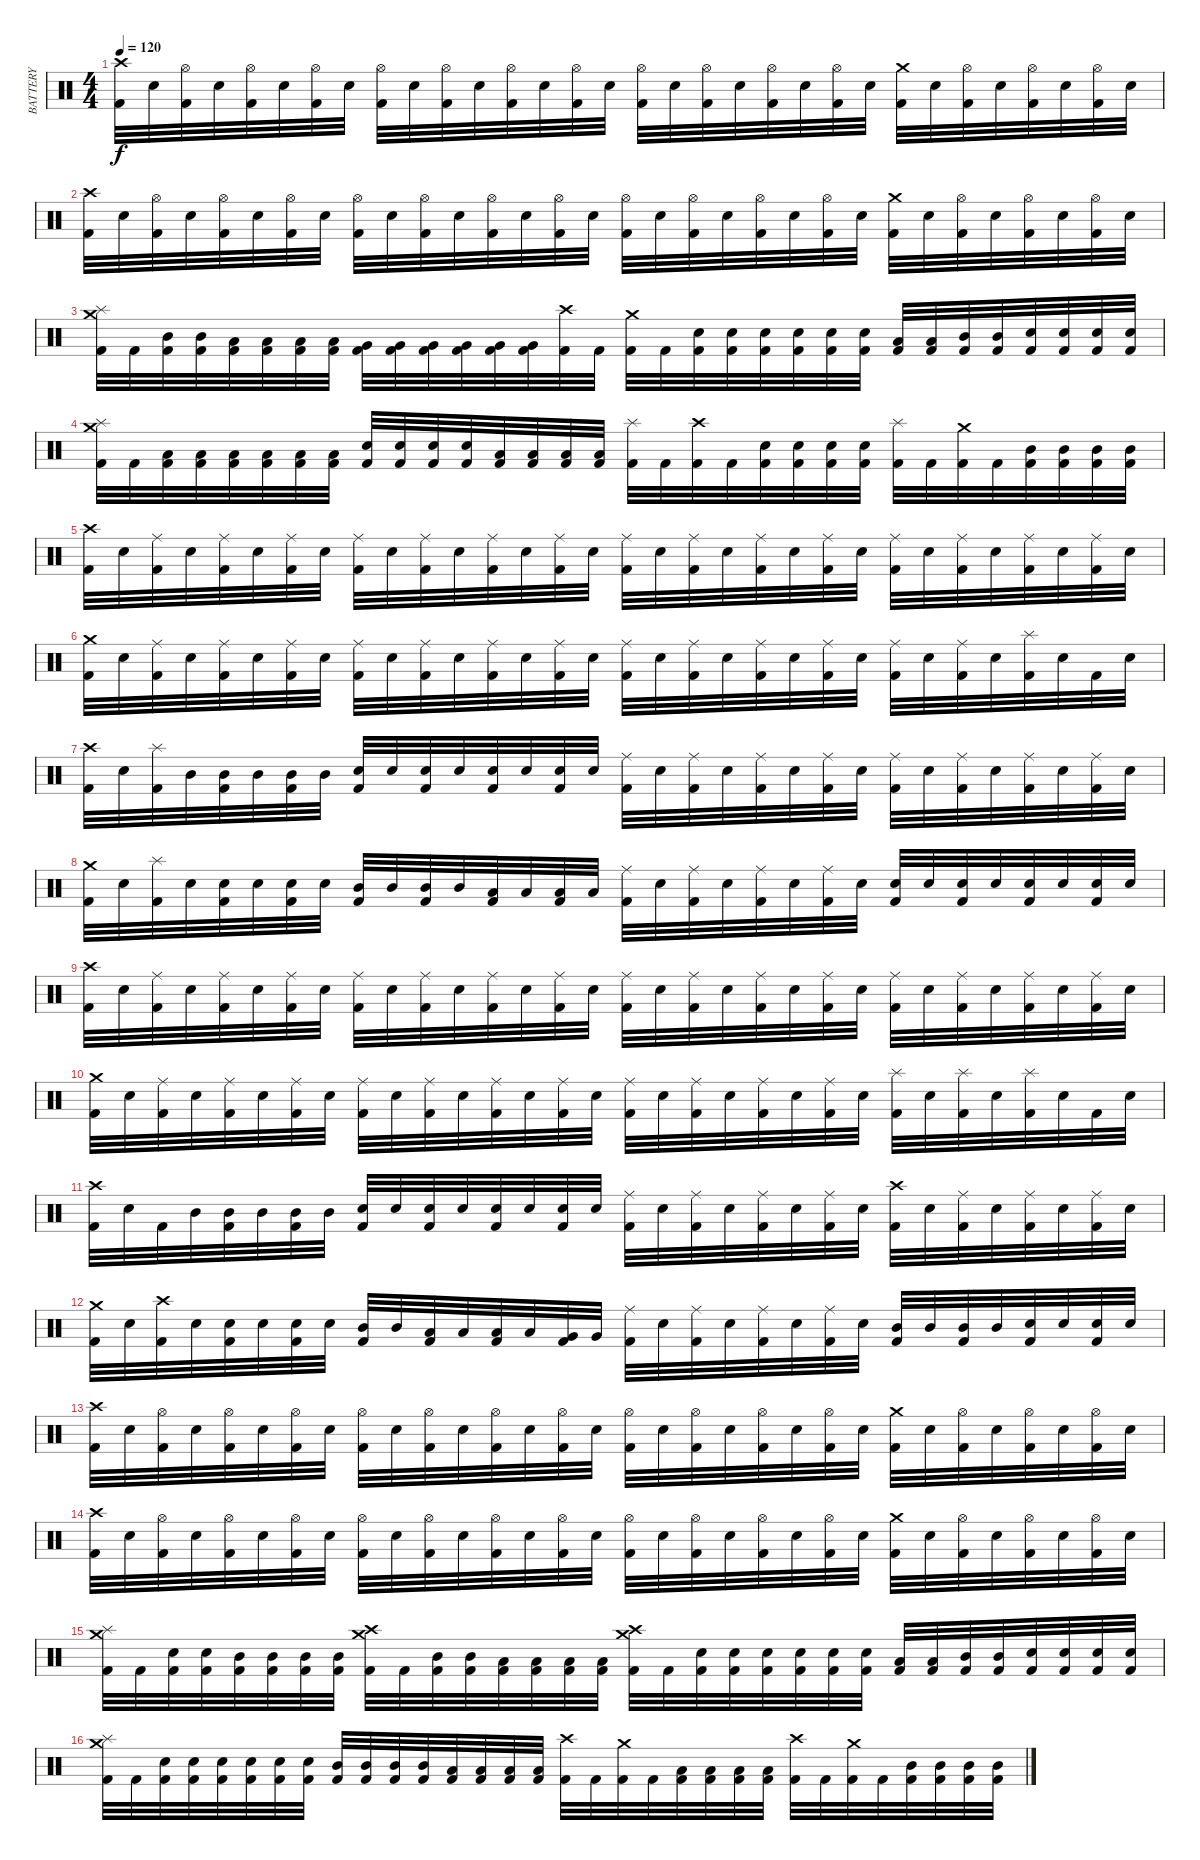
\track ("BATTERY" "BATTERY") {instrument percussion}
\staff {score}
\articulation defaults
\ts (4 4)
\tempo 120
\clef neutral
\ks c
("Kick (hit) 2" "Crash high (hit)").32{dy f} "Snare (hit) 2".32 ("Kick (hit) 2" "Hi-Hat (open)").32 "Snare (hit) 2".32 ("Kick (hit) 2" "Hi-Hat (open)").32 "Snare (hit) 2".32 ("Kick (hit) 2" "Hi-Hat (open)").32 "Snare (hit) 2".32 ("Kick (hit) 2" "Hi-Hat (open)").32 "Snare (hit) 2".32 ("Kick (hit) 2" "Hi-Hat (open)").32 "Snare (hit) 2".32 ("Kick (hit) 2" "Hi-Hat (open)").32 "Snare (hit) 2".32 ("Kick (hit) 2" "Hi-Hat (open)").32 "Snare (hit) 2".32 ("Kick (hit) 2" "Hi-Hat (open)").32 "Snare (hit) 2".32 ("Kick (hit) 2" "Hi-Hat (open)").32 "Snare (hit) 2".32 ("Kick (hit) 2" "Hi-Hat (open)").32 "Snare (hit) 2".32 ("Kick (hit) 2" "Hi-Hat (open)").32 "Snare (hit) 2".32 ("Kick (hit) 2" "Crash medium (hit)").32 "Snare (hit) 2".32 ("Kick (hit) 2" "Hi-Hat (open)").32 "Snare (hit) 2".32 ("Kick (hit) 2" "Hi-Hat (open)").32 "Snare (hit) 2".32 ("Kick (hit) 2" "Hi-Hat (open)").32 "Snare (hit) 2".32 |
("Kick (hit) 2" "Crash high (hit)").32 "Snare (hit) 2".32 ("Kick (hit) 2" "Hi-Hat (open)").32 "Snare (hit) 2".32 ("Kick (hit) 2" "Hi-Hat (open)").32 "Snare (hit) 2".32 ("Kick (hit) 2" "Hi-Hat (open)").32 "Snare (hit) 2".32 ("Kick (hit) 2" "Hi-Hat (open)").32 "Snare (hit) 2".32 ("Kick (hit) 2" "Hi-Hat (open)").32 "Snare (hit) 2".32 ("Kick (hit) 2" "Hi-Hat (open)").32 "Snare (hit) 2".32 ("Kick (hit) 2" "Hi-Hat (open)").32 "Snare (hit) 2".32 ("Kick (hit) 2" "Hi-Hat (open)").32 "Snare (hit) 2".32 ("Kick (hit) 2" "Hi-Hat (open)").32 "Snare (hit) 2".32 ("Kick (hit) 2" "Hi-Hat (open)").32 "Snare (hit) 2".32 ("Kick (hit) 2" "Hi-Hat (open)").32 "Snare (hit) 2".32 ("Kick (hit) 2" "Crash medium (hit)").32 "Snare (hit) 2".32 ("Kick (hit) 2" "Hi-Hat (open)").32 "Snare (hit) 2".32 ("Kick (hit) 2" "Hi-Hat (open)").32 "Snare (hit) 2".32 ("Kick (hit) 2" "Hi-Hat (open)").32 "Snare (hit) 2".32 |
("Kick (hit) 2" "Splash (hit)" "Crash medium (hit)").32 "Kick (hit) 2".32 ("Kick (hit) 2" "Mid Tom (hit)").32 ("Kick (hit) 2" "Mid Tom (hit)").32 ("Kick (hit) 2" "Low Tom (hit)").32 ("Kick (hit) 2" "Low Tom (hit)").32 ("Kick (hit) 2" "Low Tom (hit)").32 ("Kick (hit) 2" "Low Tom (hit)").32 ("Kick (hit) 2" "Very Low Tom (hit)").32 ("Kick (hit) 2" "Very Low Tom (hit)").32 ("Kick (hit) 2" "Very Low Tom (hit)").32 ("Kick (hit) 2" "Very Low Tom (hit)").32 ("Kick (hit) 2" "Very Low Tom (hit)").32 ("Kick (hit) 2" "Very Low Tom (hit)").32 ("Kick (hit) 2" "Crash high (hit)").32 "Kick (hit) 2".32 ("Kick (hit) 2" "Crash medium (hit)").32 "Kick (hit) 2".32 ("Kick (hit) 2" "Snare (hit) 2").32 ("Kick (hit) 2" "Snare (hit) 2").32 ("Kick (hit) 2" "Snare (hit) 2").32 ("Kick (hit) 2" "Snare (hit) 2").32 ("Kick (hit) 2" "Snare (hit) 2").32 ("Kick (hit) 2" "Snare (hit) 2").32 ("Kick (hit) 2" "Low Tom (hit)").32 ("Kick (hit) 2" "Low Tom (hit)").32 ("Kick (hit) 2" "Mid Tom (hit)").32 ("Kick (hit) 2" "Mid Tom (hit)").32 ("Kick (hit) 2" "Snare (hit) 2").32 ("Kick (hit) 2" "Snare (hit) 2").32 ("Kick (hit) 2" "Snare (hit) 2").32 ("Kick (hit) 2" "Snare (hit) 2").32 |
("Kick (hit) 2" "Splash (hit)" "Crash medium (hit)").32 "Kick (hit) 2".32 ("Kick (hit) 2" "Low Tom (hit)").32 ("Kick (hit) 2" "Low Tom (hit)").32 ("Kick (hit) 2" "Low Tom (hit)").32 ("Kick (hit) 2" "Low Tom (hit)").32 ("Kick (hit) 2" "Low Tom (hit)").32 ("Kick (hit) 2" "Low Tom (hit)").32 ("Kick (hit) 2" "Snare (hit) 2").32 ("Kick (hit) 2" "Snare (hit) 2").32 ("Kick (hit) 2" "Snare (hit) 2").32 ("Kick (hit) 2" "Snare (hit) 2").32 ("Kick (hit) 2" "Low Tom (hit)").32 ("Kick (hit) 2" "Low Tom (hit)").32 ("Kick (hit) 2" "Low Tom (hit)").32 ("Kick (hit) 2" "Low Tom (hit)").32 ("Kick (hit) 2" "Splash (hit)").32 "Kick (hit) 2".32 ("Kick (hit) 2" "Crash high (hit)").32 "Kick (hit) 2".32 ("Kick (hit) 2" "Snare (hit) 2").32 ("Kick (hit) 2" "Snare (hit) 2").32 ("Kick (hit) 2" "Snare (hit) 2").32 ("Kick (hit) 2" "Snare (hit) 2").32 ("Kick (hit) 2" "Splash (hit)").32 "Kick (hit) 2".32 ("Kick (hit) 2" "Crash medium (hit)").32 "Kick (hit) 2".32 ("Kick (hit) 2" "Mid Tom (hit)").32 ("Kick (hit) 2" "Mid Tom (hit)").32 ("Kick (hit) 2" "Mid Tom (hit)").32 ("Kick (hit) 2" "Mid Tom (hit)").32 |
("Kick (hit) 2" "Crash high (hit)").32 "Snare (hit) 2".32 ("Kick (hit) 2" "Ride (middle)").32 "Snare (hit) 2".32 ("Kick (hit) 2" "Ride (middle)").32 "Snare (hit) 2".32 ("Kick (hit) 2" "Ride (middle)").32 "Snare (hit) 2".32 ("Kick (hit) 2" "Ride (middle)").32 "Snare (hit) 2".32 ("Kick (hit) 2" "Ride (middle)").32 "Snare (hit) 2".32 ("Kick (hit) 2" "Ride (middle)").32 "Snare (hit) 2".32 ("Kick (hit) 2" "Ride (middle)").32 "Snare (hit) 2".32 ("Kick (hit) 2" "Ride (middle)").32 "Snare (hit) 2".32 ("Kick (hit) 2" "Ride (middle)").32 "Snare (hit) 2".32 ("Kick (hit) 2" "Ride (middle)").32 "Snare (hit) 2".32 ("Kick (hit) 2" "Ride (middle)").32 "Snare (hit) 2".32 ("Kick (hit) 2" "Ride (middle)").32 "Snare (hit) 2".32 ("Kick (hit) 2" "Ride (middle)").32 "Snare (hit) 2".32 ("Kick (hit) 2" "Ride (middle)").32 "Snare (hit) 2".32 ("Kick (hit) 2" "Ride (middle)").32 "Snare (hit) 2".32 |
("Kick (hit) 2" "Crash medium (hit)").32 "Snare (hit) 2".32 ("Kick (hit) 2" "Ride (middle)").32 "Snare (hit) 2".32 ("Kick (hit) 2" "Ride (middle)").32 "Snare (hit) 2".32 ("Kick (hit) 2" "Ride (middle)").32 "Snare (hit) 2".32 ("Kick (hit) 2" "Ride (middle)").32 "Snare (hit) 2".32 ("Kick (hit) 2" "Ride (middle)").32 "Snare (hit) 2".32 ("Kick (hit) 2" "Ride (middle)").32 "Snare (hit) 2".32 ("Kick (hit) 2" "Ride (middle)").32 "Snare (hit) 2".32 ("Kick (hit) 2" "Ride (middle)").32 "Snare (hit) 2".32 ("Kick (hit) 2" "Ride (middle)").32 "Snare (hit) 2".32 ("Kick (hit) 2" "Ride (middle)").32 "Snare (hit) 2".32 ("Kick (hit) 2" "Ride (middle)").32 "Snare (hit) 2".32 ("Kick (hit) 2" "Ride (middle)").32 "Snare (hit) 2".32 ("Kick (hit) 2" "Ride (middle)").32 "Snare (hit) 2".32 ("Kick (hit) 2" "Splash (hit)").32 "Snare (hit) 2".32 "Kick (hit) 2".32 "Snare (hit) 2".32 |
("Kick (hit) 2" "Crash high (hit)").32 "Snare (hit) 2".32 ("Kick (hit) 2" "Splash (hit)").32 "Mid Tom (hit)".32 ("Kick (hit) 2" "Mid Tom (hit)").32 "Mid Tom (hit)".32 ("Kick (hit) 2" "Mid Tom (hit)").32 "Mid Tom (hit)".32 ("Kick (hit) 2" "Snare (hit) 2").32 "Snare (hit) 2".32 ("Kick (hit) 2" "Snare (hit) 2").32 "Snare (hit) 2".32 ("Kick (hit) 2" "Snare (hit) 2").32 "Snare (hit) 2".32 ("Kick (hit) 2" "Snare (hit) 2").32 "Snare (hit) 2".32 ("Kick (hit) 2" "Ride (middle)").32 "Snare (hit) 2".32 ("Kick (hit) 2" "Ride (middle)").32 "Snare (hit) 2".32 ("Kick (hit) 2" "Ride (middle)").32 "Snare (hit) 2".32 ("Kick (hit) 2" "Ride (middle)").32 "Snare (hit) 2".32 ("Kick (hit) 2" "Ride (middle)").32 "Snare (hit) 2".32 ("Kick (hit) 2" "Ride (middle)").32 "Snare (hit) 2".32 ("Kick (hit) 2" "Ride (middle)").32 "Snare (hit) 2".32 ("Kick (hit) 2" "Ride (middle)").32 "Snare (hit) 2".32 |
("Kick (hit) 2" "Crash medium (hit)").32 "Snare (hit) 2".32 ("Kick (hit) 2" "Splash (hit)").32 "Snare (hit) 2".32 ("Kick (hit) 2" "Snare (hit) 2").32 "Snare (hit) 2".32 ("Kick (hit) 2" "Snare (hit) 2").32 "Snare (hit) 2".32 ("Kick (hit) 2" "Mid Tom (hit)").32 "Mid Tom (hit)".32 ("Kick (hit) 2" "Mid Tom (hit)").32 "Mid Tom (hit)".32 ("Kick (hit) 2" "Low Tom (hit)").32 "Low Tom (hit)".32 ("Kick (hit) 2" "Low Tom (hit)").32 "Low Tom (hit)".32 ("Kick (hit) 2" "Ride (middle)").32 "Snare (hit) 2".32 ("Kick (hit) 2" "Ride (middle)").32 "Snare (hit) 2".32 ("Kick (hit) 2" "Ride (middle)").32 "Snare (hit) 2".32 ("Kick (hit) 2" "Ride (middle)").32 "Snare (hit) 2".32 ("Kick (hit) 2" "Snare (hit) 2").32 "Snare (hit) 2".32 ("Kick (hit) 2" "Snare (hit) 2").32 "Snare (hit) 2".32 ("Kick (hit) 2" "Snare (hit) 2").32 "Snare (hit) 2".32 ("Kick (hit) 2" "Snare (hit) 2").32 "Snare (hit) 2".32 |
("Kick (hit) 2" "Crash high (hit)").32 "Snare (hit) 2".32 ("Kick (hit) 2" "Ride (middle)").32 "Snare (hit) 2".32 ("Kick (hit) 2" "Ride (middle)").32 "Snare (hit) 2".32 ("Kick (hit) 2" "Ride (middle)").32 "Snare (hit) 2".32 ("Kick (hit) 2" "Ride (middle)").32 "Snare (hit) 2".32 ("Kick (hit) 2" "Ride (middle)").32 "Snare (hit) 2".32 ("Kick (hit) 2" "Ride (middle)").32 "Snare (hit) 2".32 ("Kick (hit) 2" "Ride (middle)").32 "Snare (hit) 2".32 ("Kick (hit) 2" "Ride (middle)").32 "Snare (hit) 2".32 ("Kick (hit) 2" "Ride (middle)").32 "Snare (hit) 2".32 ("Kick (hit) 2" "Ride (middle)").32 "Snare (hit) 2".32 ("Kick (hit) 2" "Ride (middle)").32 "Snare (hit) 2".32 ("Kick (hit) 2" "Ride (middle)").32 "Snare (hit) 2".32 ("Kick (hit) 2" "Ride (middle)").32 "Snare (hit) 2".32 ("Kick (hit) 2" "Ride (middle)").32 "Snare (hit) 2".32 ("Kick (hit) 2" "Ride (middle)").32 "Snare (hit) 2".32 |
("Kick (hit) 2" "Crash medium (hit)").32 "Snare (hit) 2".32 ("Kick (hit) 2" "Ride (middle)").32 "Snare (hit) 2".32 ("Kick (hit) 2" "Ride (middle)").32 "Snare (hit) 2".32 ("Kick (hit) 2" "Ride (middle)").32 "Snare (hit) 2".32 ("Kick (hit) 2" "Ride (middle)").32 "Snare (hit) 2".32 ("Kick (hit) 2" "Ride (middle)").32 "Snare (hit) 2".32 ("Kick (hit) 2" "Ride (middle)").32 "Snare (hit) 2".32 ("Kick (hit) 2" "Ride (middle)").32 "Snare (hit) 2".32 ("Kick (hit) 2" "Ride (middle)").32 "Snare (hit) 2".32 ("Kick (hit) 2" "Ride (middle)").32 "Snare (hit) 2".32 ("Kick (hit) 2" "Ride (middle)").32 "Snare (hit) 2".32 ("Kick (hit) 2" "Ride (middle)").32 "Snare (hit) 2".32 ("Kick (hit) 2" "Splash (hit)").32 "Snare (hit) 2".32 ("Kick (hit) 2" "Splash (hit)").32 "Snare (hit) 2".32 ("Kick (hit) 2" "Splash (hit)").32 "Snare (hit) 2".32 "Kick (hit) 2".32 "Snare (hit) 2".32 |
("Kick (hit) 2" "Crash high (hit)").32 "Snare (hit) 2".32 "Kick (hit) 2".32 "Mid Tom (hit)".32 ("Kick (hit) 2" "Mid Tom (hit)").32 "Mid Tom (hit)".32 ("Kick (hit) 2" "Mid Tom (hit)").32 "Mid Tom (hit)".32 ("Kick (hit) 2" "Snare (hit) 2").32 "Snare (hit) 2".32 ("Kick (hit) 2" "Snare (hit) 2").32 "Snare (hit) 2".32 ("Kick (hit) 2" "Snare (hit) 2").32 "Snare (hit) 2".32 ("Kick (hit) 2" "Snare (hit) 2").32 "Snare (hit) 2".32 ("Kick (hit) 2" "Ride (middle)").32 "Snare (hit) 2".32 ("Kick (hit) 2" "Ride (middle)").32 "Snare (hit) 2".32 ("Kick (hit) 2" "Ride (middle)").32 "Snare (hit) 2".32 ("Kick (hit) 2" "Ride (middle)").32 "Snare (hit) 2".32 ("Kick (hit) 2" "Crash high (hit)").32 "Snare (hit) 2".32 ("Kick (hit) 2" "Ride (middle)").32 "Snare (hit) 2".32 ("Kick (hit) 2" "Ride (middle)").32 "Snare (hit) 2".32 ("Kick (hit) 2" "Ride (middle)").32 "Snare (hit) 2".32 |
("Kick (hit) 2" "Crash medium (hit)").32 "Snare (hit) 2".32 ("Kick (hit) 2" "Crash high (hit)").32 "Snare (hit) 2".32 ("Kick (hit) 2" "Snare (hit) 2").32 "Snare (hit) 2".32 ("Kick (hit) 2" "Snare (hit) 2").32 "Snare (hit) 2".32 ("Kick (hit) 2" "Mid Tom (hit)").32 "Mid Tom (hit)".32 ("Kick (hit) 2" "Low Tom (hit)").32 "Low Tom (hit)".32 ("Kick (hit) 2" "Low Tom (hit)").32 "Low Tom (hit)".32 ("Kick (hit) 2" "Very Low Tom (hit)").32 "Very Low Tom (hit)".32 ("Kick (hit) 2" "Ride (middle)").32 "Snare (hit) 2".32 ("Kick (hit) 2" "Ride (middle)").32 "Snare (hit) 2".32 ("Kick (hit) 2" "Ride (middle)").32 "Snare (hit) 2".32 ("Kick (hit) 2" "Ride (middle)").32 "Snare (hit) 2".32 ("Kick (hit) 2" "Mid Tom (hit)").32 "Mid Tom (hit)".32 ("Kick (hit) 2" "Mid Tom (hit)").32 "Mid Tom (hit)".32 ("Kick (hit) 2" "Snare (hit) 2").32 "Snare (hit) 2".32 ("Kick (hit) 2" "Snare (hit) 2").32 "Snare (hit) 2".32 |
("Kick (hit) 2" "Crash high (hit)").32 "Snare (hit) 2".32 ("Kick (hit) 2" "Hi-Hat (open)").32 "Snare (hit) 2".32 ("Kick (hit) 2" "Hi-Hat (open)").32 "Snare (hit) 2".32 ("Kick (hit) 2" "Hi-Hat (open)").32 "Snare (hit) 2".32 ("Kick (hit) 2" "Hi-Hat (open)").32 "Snare (hit) 2".32 ("Kick (hit) 2" "Hi-Hat (open)").32 "Snare (hit) 2".32 ("Kick (hit) 2" "Hi-Hat (open)").32 "Snare (hit) 2".32 ("Kick (hit) 2" "Hi-Hat (open)").32 "Snare (hit) 2".32 ("Kick (hit) 2" "Hi-Hat (open)").32 "Snare (hit) 2".32 ("Kick (hit) 2" "Hi-Hat (open)").32 "Snare (hit) 2".32 ("Kick (hit) 2" "Hi-Hat (open)").32 "Snare (hit) 2".32 ("Kick (hit) 2" "Hi-Hat (open)").32 "Snare (hit) 2".32 ("Kick (hit) 2" "Crash medium (hit)").32 "Snare (hit) 2".32 ("Kick (hit) 2" "Hi-Hat (open)").32 "Snare (hit) 2".32 ("Kick (hit) 2" "Hi-Hat (open)").32 "Snare (hit) 2".32 ("Kick (hit) 2" "Hi-Hat (open)").32 "Snare (hit) 2".32 |
("Kick (hit) 2" "Crash high (hit)").32 "Snare (hit) 2".32 ("Kick (hit) 2" "Hi-Hat (open)").32 "Snare (hit) 2".32 ("Kick (hit) 2" "Hi-Hat (open)").32 "Snare (hit) 2".32 ("Kick (hit) 2" "Hi-Hat (open)").32 "Snare (hit) 2".32 ("Kick (hit) 2" "Hi-Hat (open)").32 "Snare (hit) 2".32 ("Kick (hit) 2" "Hi-Hat (open)").32 "Snare (hit) 2".32 ("Kick (hit) 2" "Hi-Hat (open)").32 "Snare (hit) 2".32 ("Kick (hit) 2" "Hi-Hat (open)").32 "Snare (hit) 2".32 ("Kick (hit) 2" "Hi-Hat (open)").32 "Snare (hit) 2".32 ("Kick (hit) 2" "Hi-Hat (open)").32 "Snare (hit) 2".32 ("Kick (hit) 2" "Hi-Hat (open)").32 "Snare (hit) 2".32 ("Kick (hit) 2" "Hi-Hat (open)").32 "Snare (hit) 2".32 ("Kick (hit) 2" "Crash medium (hit)").32 "Snare (hit) 2".32 ("Kick (hit) 2" "Hi-Hat (open)").32 "Snare (hit) 2".32 ("Kick (hit) 2" "Hi-Hat (open)").32 "Snare (hit) 2".32 ("Kick (hit) 2" "Hi-Hat (open)").32 "Snare (hit) 2".32 |
("Kick (hit) 2" "Splash (hit)" "Crash medium (hit)").32 "Kick (hit) 2".32 ("Kick (hit) 2" "Snare (hit) 2").32 ("Kick (hit) 2" "Snare (hit) 2").32 ("Kick (hit) 2" "Mid Tom (hit)").32 ("Kick (hit) 2" "Mid Tom (hit)").32 ("Kick (hit) 2" "Mid Tom (hit)").32 ("Kick (hit) 2" "Mid Tom (hit)").32 ("Kick (hit) 2" "Crash medium (hit)" "Crash high (hit)").32 "Kick (hit) 2".32 ("Kick (hit) 2" "Mid Tom (hit)").32 ("Kick (hit) 2" "Mid Tom (hit)").32 ("Kick (hit) 2" "Low Tom (hit)").32 ("Kick (hit) 2" "Low Tom (hit)").32 ("Kick (hit) 2" "Low Tom (hit)").32 ("Kick (hit) 2" "Low Tom (hit)").32 ("Kick (hit) 2" "Crash high (hit)" "Crash medium (hit)").32 "Kick (hit) 2".32 ("Kick (hit) 2" "Snare (hit) 2").32 ("Kick (hit) 2" "Snare (hit) 2").32 ("Kick (hit) 2" "Snare (hit) 2").32 ("Kick (hit) 2" "Snare (hit) 2").32 ("Kick (hit) 2" "Snare (hit) 2").32 ("Kick (hit) 2" "Snare (hit) 2").32 ("Kick (hit) 2" "Low Tom (hit)").32 ("Kick (hit) 2" "Low Tom (hit)").32 ("Kick (hit) 2" "Mid Tom (hit)").32 ("Kick (hit) 2" "Mid Tom (hit)").32 ("Kick (hit) 2" "Snare (hit) 2").32 ("Kick (hit) 2" "Snare (hit) 2").32 ("Kick (hit) 2" "Snare (hit) 2").32 ("Kick (hit) 2" "Snare (hit) 2").32 |
("Kick (hit) 2" "Splash (hit)" "Crash medium (hit)").32 "Kick (hit) 2".32 ("Kick (hit) 2" "Snare (hit) 2").32 ("Kick (hit) 2" "Snare (hit) 2").32 ("Kick (hit) 2" "Snare (hit) 2").32 ("Kick (hit) 2" "Snare (hit) 2").32 ("Kick (hit) 2" "Snare (hit) 2").32 ("Kick (hit) 2" "Snare (hit) 2").32 ("Kick (hit) 2" "Mid Tom (hit)").32 ("Kick (hit) 2" "Mid Tom (hit)").32 ("Kick (hit) 2" "Mid Tom (hit)").32 ("Kick (hit) 2" "Mid Tom (hit)").32 ("Kick (hit) 2" "Low Tom (hit)").32 ("Kick (hit) 2" "Low Tom (hit)").32 ("Kick (hit) 2" "Low Tom (hit)").32 ("Kick (hit) 2" "Low Tom (hit)").32 ("Kick (hit) 2" "Crash high (hit)").32 "Kick (hit) 2".32 ("Kick (hit) 2" "Crash medium (hit)").32 "Kick (hit) 2".32 ("Kick (hit) 2" "Low Tom (hit)").32 ("Kick (hit) 2" "Low Tom (hit)").32 ("Kick (hit) 2" "Low Tom (hit)").32 ("Kick (hit) 2" "Low Tom (hit)").32 ("Kick (hit) 2" "Crash high (hit)").32 "Kick (hit) 2".32 ("Kick (hit) 2" "Crash medium (hit)").32 "Kick (hit) 2".32 ("Kick (hit) 2" "Mid Tom (hit)").32 ("Kick (hit) 2" "Mid Tom (hit)").32 ("Kick (hit) 2" "Mid Tom (hit)").32 ("Kick (hit) 2" "Mid Tom (hit)").32
